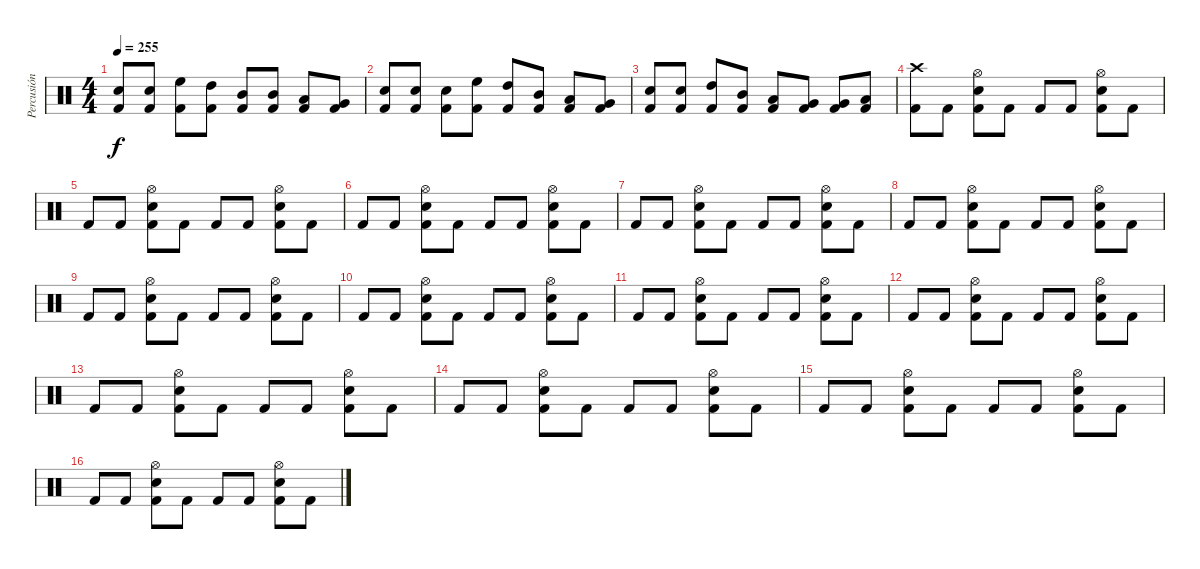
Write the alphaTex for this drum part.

\track ("Percusión" "Percusión") {instrument percussion}
\staff {score}
\articulation defaults
\ts (4 4)
\tempo 255
\clef neutral
\ks c
("Kick (hit) 2" "Electric Snare (hit)").8{dy f} ("Kick (hit) 2" "Electric Snare (hit)").8 ("Kick (hit) 2" "High Floor Tom (hit)").8 ("Kick (hit) 2" "High Tom (hit)").8 ("Kick (hit) 2" "Mid Tom (hit)").8 ("Kick (hit) 2" "Mid Tom (hit)").8 ("Kick (hit) 2" "Low Tom (hit)").8 ("Kick (hit) 2" "Very Low Tom (hit)").8 |
("Kick (hit) 2" "Electric Snare (hit)").8 ("Kick (hit) 2" "Electric Snare (hit)").8 ("Kick (hit) 2" "Electric Snare (hit)").8 ("Kick (hit) 2" "High Floor Tom (hit)").8 ("Kick (hit) 2" "High Tom (hit)").8 ("Kick (hit) 2" "Mid Tom (hit)").8 ("Kick (hit) 2" "Low Tom (hit)").8 ("Kick (hit) 2" "Very Low Tom (hit)").8 |
("Kick (hit) 2" "Electric Snare (hit)").8 ("Kick (hit) 2" "Electric Snare (hit)").8 ("Kick (hit) 2" "High Tom (hit)").8 ("Kick (hit) 2" "Mid Tom (hit)").8 ("Kick (hit) 2" "Low Tom (hit)").8 ("Kick (hit) 2" "Very Low Tom (hit)").8 ("Kick (hit) 2" "Very Low Tom (hit)").8 ("Kick (hit) 2" "Low Floor Tom (hit)").8 |
("Kick (hit) 2" "Crash high (hit)").8 "Kick (hit) 2".8 ("Kick (hit) 2" "Electric Snare (hit)" "Hi-Hat (open)").8 "Kick (hit) 2".8 "Kick (hit) 2".8 "Kick (hit) 2".8 ("Kick (hit) 2" "Electric Snare (hit)" "Hi-Hat (open)").8 "Kick (hit) 2".8 |
"Kick (hit) 2".8 "Kick (hit) 2".8 ("Kick (hit) 2" "Electric Snare (hit)" "Hi-Hat (open)").8 "Kick (hit) 2".8 "Kick (hit) 2".8 "Kick (hit) 2".8 ("Kick (hit) 2" "Electric Snare (hit)" "Hi-Hat (open)").8 "Kick (hit) 2".8 |
"Kick (hit) 2".8 "Kick (hit) 2".8 ("Kick (hit) 2" "Electric Snare (hit)" "Hi-Hat (open)").8 "Kick (hit) 2".8 "Kick (hit) 2".8 "Kick (hit) 2".8 ("Kick (hit) 2" "Electric Snare (hit)" "Hi-Hat (open)").8 "Kick (hit) 2".8 |
"Kick (hit) 2".8 "Kick (hit) 2".8 ("Kick (hit) 2" "Electric Snare (hit)" "Hi-Hat (open)").8 "Kick (hit) 2".8 "Kick (hit) 2".8 "Kick (hit) 2".8 ("Kick (hit) 2" "Electric Snare (hit)" "Hi-Hat (open)").8 "Kick (hit) 2".8 |
"Kick (hit) 2".8 "Kick (hit) 2".8 ("Kick (hit) 2" "Electric Snare (hit)" "Hi-Hat (open)").8 "Kick (hit) 2".8 "Kick (hit) 2".8 "Kick (hit) 2".8 ("Kick (hit) 2" "Electric Snare (hit)" "Hi-Hat (open)").8 "Kick (hit) 2".8 |
"Kick (hit) 2".8 "Kick (hit) 2".8 ("Kick (hit) 2" "Electric Snare (hit)" "Hi-Hat (open)").8 "Kick (hit) 2".8 "Kick (hit) 2".8 "Kick (hit) 2".8 ("Kick (hit) 2" "Electric Snare (hit)" "Hi-Hat (open)").8 "Kick (hit) 2".8 |
"Kick (hit) 2".8 "Kick (hit) 2".8 ("Kick (hit) 2" "Electric Snare (hit)" "Hi-Hat (open)").8 "Kick (hit) 2".8 "Kick (hit) 2".8 "Kick (hit) 2".8 ("Kick (hit) 2" "Electric Snare (hit)" "Hi-Hat (open)").8 "Kick (hit) 2".8 |
"Kick (hit) 2".8 "Kick (hit) 2".8 ("Kick (hit) 2" "Electric Snare (hit)" "Hi-Hat (open)").8 "Kick (hit) 2".8 "Kick (hit) 2".8 "Kick (hit) 2".8 ("Kick (hit) 2" "Electric Snare (hit)" "Hi-Hat (open)").8 "Kick (hit) 2".8 |
"Kick (hit) 2".8 "Kick (hit) 2".8 ("Kick (hit) 2" "Electric Snare (hit)" "Hi-Hat (open)").8 "Kick (hit) 2".8 "Kick (hit) 2".8 "Kick (hit) 2".8 ("Kick (hit) 2" "Electric Snare (hit)" "Hi-Hat (open)").8 "Kick (hit) 2".8 |
"Kick (hit) 2".8 "Kick (hit) 2".8 ("Kick (hit) 2" "Electric Snare (hit)" "Hi-Hat (open)").8 "Kick (hit) 2".8 "Kick (hit) 2".8 "Kick (hit) 2".8 ("Kick (hit) 2" "Electric Snare (hit)" "Hi-Hat (open)").8 "Kick (hit) 2".8 |
"Kick (hit) 2".8 "Kick (hit) 2".8 ("Kick (hit) 2" "Electric Snare (hit)" "Hi-Hat (open)").8 "Kick (hit) 2".8 "Kick (hit) 2".8 "Kick (hit) 2".8 ("Kick (hit) 2" "Electric Snare (hit)" "Hi-Hat (open)").8 "Kick (hit) 2".8 |
"Kick (hit) 2".8 "Kick (hit) 2".8 ("Kick (hit) 2" "Electric Snare (hit)" "Hi-Hat (open)").8 "Kick (hit) 2".8 "Kick (hit) 2".8 "Kick (hit) 2".8 ("Kick (hit) 2" "Electric Snare (hit)" "Hi-Hat (open)").8 "Kick (hit) 2".8 |
"Kick (hit) 2".8 "Kick (hit) 2".8 ("Kick (hit) 2" "Electric Snare (hit)" "Hi-Hat (open)").8 "Kick (hit) 2".8 "Kick (hit) 2".8 "Kick (hit) 2".8 ("Kick (hit) 2" "Electric Snare (hit)" "Hi-Hat (open)").8 "Kick (hit) 2".8
